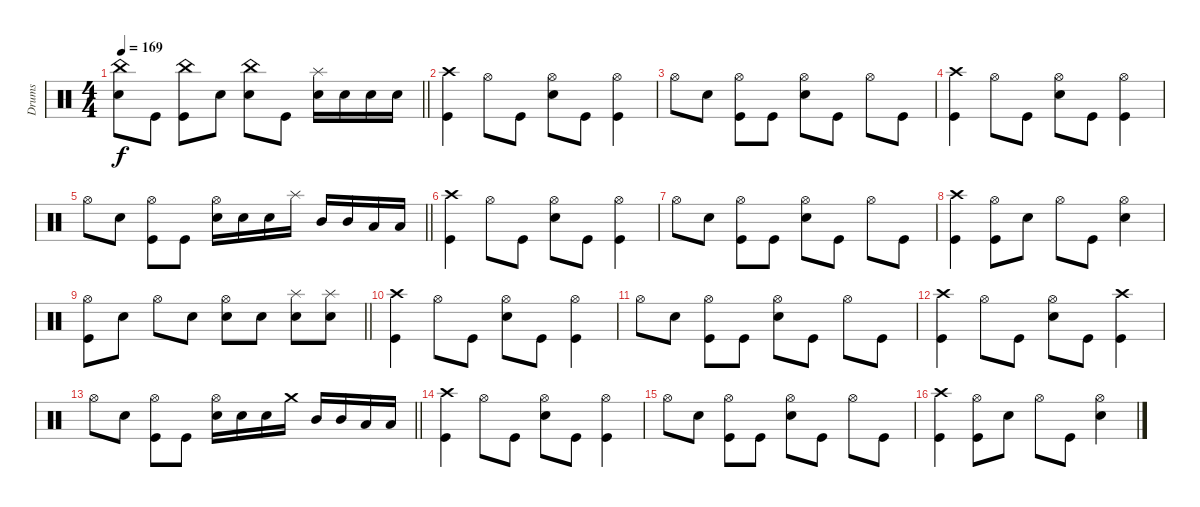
\track ("Drums" "Drums") {instrument percussion}
\staff
\articulation defaults
\ts (4 4)
\tempo 169
\clef neutral
\barLineRight lightlight
\ks c
("China (hit)" "Electric Snare (hit)").8{dy f} "Kick (hit)".8 ("China (hit)" "Kick (hit)").8 "Electric Snare (hit)".8 ("China (hit)" "Electric Snare (hit)").8 "Kick (hit)".8 ("Splash (hit)" "Electric Snare (hit)").16 "Electric Snare (hit)".16 "Electric Snare (hit)".16 "Electric Snare (hit)".16 |
("Crash high (hit)" "Kick (hit)").4 "Hi-Hat (open)".8 "Kick (hit)".8 ("Hi-Hat (open)" "Electric Snare (hit)").8 "Kick (hit)".8 ("Hi-Hat (open)" "Kick (hit)").4 |
"Hi-Hat (open)".8 "Electric Snare (hit)".8 ("Hi-Hat (open)" "Kick (hit)").8 "Kick (hit)".8 ("Hi-Hat (open)" "Electric Snare (hit)").8 "Kick (hit)".8 "Hi-Hat (open)".8 "Kick (hit)".8 |
("Crash high (hit)" "Kick (hit)").4 "Hi-Hat (open)".8 "Kick (hit)".8 ("Hi-Hat (open)" "Electric Snare (hit)").8 "Kick (hit)".8 ("Hi-Hat (open)" "Kick (hit)").4 |
\barLineRight lightlight "Hi-Hat (open)".8 "Electric Snare (hit)".8
("Hi-Hat (open)" "Kick (hit)").8 "Kick (hit)".8 ("Hi-Hat (open)" "Electric Snare (hit)").16 "Electric Snare (hit)".16 "Electric Snare (hit)".16 "Splash (hit)".16 "Mid Tom (hit)".16 "Mid Tom (hit)".16 "Low Tom (hit)".16 "Low Tom (hit)".16 |
("Crash high (hit)" "Kick (hit)").4 "Hi-Hat (open)".8 "Kick (hit)".8 ("Hi-Hat (open)" "Electric Snare (hit)").8 "Kick (hit)".8 ("Hi-Hat (open)" "Kick (hit)").4 |
"Hi-Hat (open)".8 "Electric Snare (hit)".8 ("Hi-Hat (open)" "Kick (hit)").8 "Kick (hit)".8 ("Hi-Hat (open)" "Electric Snare (hit)").8 "Kick (hit)".8 "Hi-Hat (open)".8 "Kick (hit)".8 |
("Crash high (hit)" "Kick (hit)").4 ("Hi-Hat (open)" "Kick (hit)").8 "Electric Snare (hit)".8 "Hi-Hat (open)".8 "Kick (hit)".8 ("Hi-Hat (open)" "Electric Snare (hit)").4 |
\barLineRight lightlight
("Hi-Hat (open)" "Kick (hit)").8 "Electric Snare (hit)".8 "Hi-Hat (open)".8 "Electric Snare (hit)".8 ("Hi-Hat (open)" "Electric Snare (hit)").8 "Electric Snare (hit)".8 ("Splash (hit)" "Electric Snare (hit)").8 ("Splash (hit)" "Electric Snare (hit)").8 |
("Crash high (hit)" "Kick (hit)").4 "Hi-Hat (open)".8 "Kick (hit)".8 ("Hi-Hat (open)" "Electric Snare (hit)").8 "Kick (hit)".8 ("Hi-Hat (open)" "Kick (hit)").4 |
"Hi-Hat (open)".8 "Electric Snare (hit)".8 ("Hi-Hat (open)" "Kick (hit)").8 "Kick (hit)".8 ("Hi-Hat (open)" "Electric Snare (hit)").8 "Kick (hit)".8 "Hi-Hat (open)".8 "Kick (hit)".8 |
("Crash high (hit)" "Kick (hit)").4 "Hi-Hat (open)".8 "Kick (hit)".8 ("Hi-Hat (open)" "Electric Snare (hit)").8 "Kick (hit)".8 ("Crash high (hit)" "Kick (hit)").4 |
\barLineRight lightlight "Hi-Hat (open)".8 "Electric Snare (hit)".8
("Hi-Hat (open)" "Kick (hit)").8 "Kick (hit)".8 ("Hi-Hat (open)" "Electric Snare (hit)").16 "Electric Snare (hit)".16 "Electric Snare (hit)".16 "Crash medium (hit)".16 "Mid Tom (hit)".16 "Mid Tom (hit)".16 "Low Tom (hit)".16 "Low Tom (hit)".16 |
("Crash high (hit)" "Kick (hit)").4 "Hi-Hat (open)".8 "Kick (hit)".8 ("Hi-Hat (open)" "Electric Snare (hit)").8 "Kick (hit)".8 ("Hi-Hat (open)" "Kick (hit)").4 |
"Hi-Hat (open)".8 "Electric Snare (hit)".8 ("Hi-Hat (open)" "Kick (hit)").8 "Kick (hit)".8 ("Hi-Hat (open)" "Electric Snare (hit)").8 "Kick (hit)".8 "Hi-Hat (open)".8 "Kick (hit)".8 |
("Crash high (hit)" "Kick (hit)").4 ("Hi-Hat (open)" "Kick (hit)").8 "Electric Snare (hit)".8 "Hi-Hat (open)".8 "Kick (hit)".8 ("Hi-Hat (open)" "Electric Snare (hit)").4
